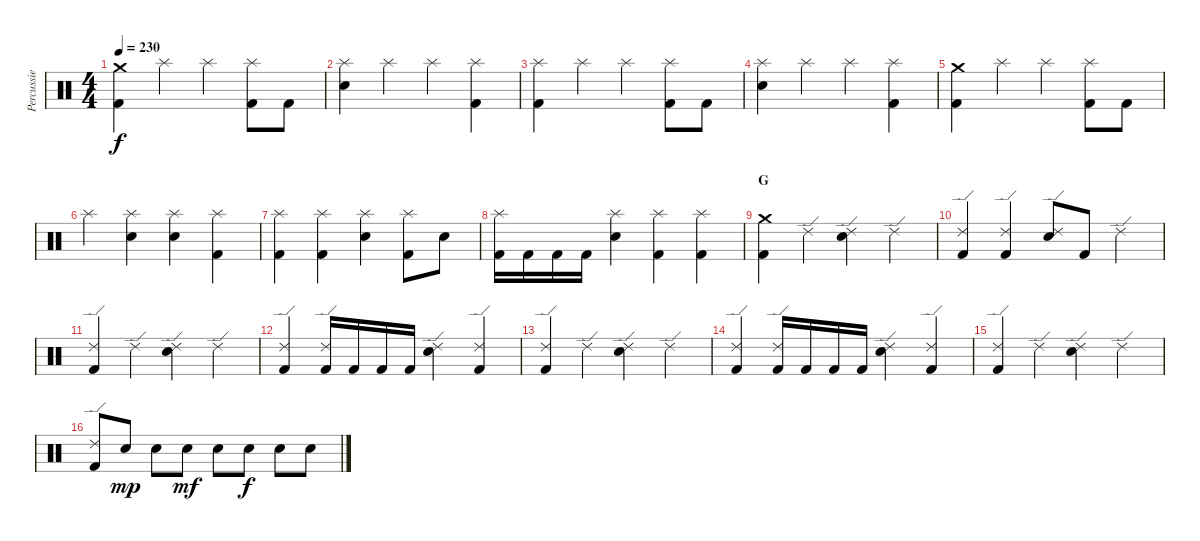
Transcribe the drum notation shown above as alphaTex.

\track ("Percussie" "Percussie") {instrument percussion}
\staff {score}
\articulation defaults
\ts (4 4)
\tempo 230
\clef neutral
\ks c
("Crash medium (hit)" "Kick (hit) 2").4{dy f} "Splash (hit)".4 "Splash (hit)".4 ("Splash (hit)" "Kick (hit) 2").8 "Kick (hit) 2".8 |
("Splash (hit)" "Electric Snare (hit)").4 "Splash (hit)".4 "Splash (hit)".4 ("Splash (hit)" "Kick (hit) 2").4 |
("Splash (hit)" "Kick (hit) 2").4 "Splash (hit)".4 "Splash (hit)".4 ("Splash (hit)" "Kick (hit) 2").8 "Kick (hit) 2".8 |
("Splash (hit)" "Electric Snare (hit)").4 "Splash (hit)".4 "Splash (hit)".4 ("Splash (hit)" "Kick (hit) 2").4 |
("Crash medium (hit)" "Kick (hit) 2").4 "Splash (hit)".4 "Splash (hit)".4 ("Splash (hit)" "Kick (hit) 2").8 "Kick (hit) 2".8 |
"Splash (hit)".4 ("Splash (hit)" "Electric Snare (hit)").4 ("Splash (hit)" "Electric Snare (hit)").4 ("Splash (hit)" "Kick (hit) 2").4 |
("Splash (hit)" "Kick (hit) 2").4 ("Splash (hit)" "Kick (hit) 2").4 ("Splash (hit)" "Electric Snare (hit)").4 ("Splash (hit)" "Kick (hit) 2").8 "Electric Snare (hit)".8 |
("Splash (hit)" "Kick (hit) 2").16 "Kick (hit) 2".16 "Kick (hit) 2".16 "Kick (hit) 2".16 ("Splash (hit)" "Electric Snare (hit)").4 ("Splash (hit)" "Kick (hit) 2").4 ("Splash (hit)" "Kick (hit) 2").4 |
\section ("" "G")
("Crash medium (hit)" "Kick (hit) 2").4 "Ride (edge) 2".4 ("Ride (edge) 2" "Electric Snare (hit)").4 "Ride (edge) 2".4 |
("Ride (edge) 2" "Kick (hit) 2").4 ("Ride (edge) 2" "Kick (hit) 2").4 ("Ride (edge) 2" "Electric Snare (hit)").8 "Kick (hit) 2".8 "Ride (edge) 2".4 |
("Ride (edge) 2" "Kick (hit) 2").4 "Ride (edge) 2".4 ("Ride (edge) 2" "Electric Snare (hit)").4 "Ride (edge) 2".4 |
("Ride (edge) 2" "Kick (hit) 2").4 ("Ride (edge) 2" "Kick (hit) 2").16 "Kick (hit) 2".16 "Kick (hit) 2".16 "Kick (hit) 2".16 ("Ride (edge) 2" "Electric Snare (hit)").4 ("Ride (edge) 2" "Kick (hit) 2").4 |
("Ride (edge) 2" "Kick (hit) 2").4 "Ride (edge) 2".4 ("Ride (edge) 2" "Electric Snare (hit)").4 "Ride (edge) 2".4 |
("Ride (edge) 2" "Kick (hit) 2").4 ("Ride (edge) 2" "Kick (hit) 2").16 "Kick (hit) 2".16 "Kick (hit) 2".16 "Kick (hit) 2".16 ("Ride (edge) 2" "Electric Snare (hit)").4 ("Ride (edge) 2" "Kick (hit) 2").4 |
("Ride (edge) 2" "Kick (hit) 2").4 "Ride (edge) 2".4 ("Ride (edge) 2" "Electric Snare (hit)").4 "Ride (edge) 2".4 |
("Ride (edge) 2" "Kick (hit) 2").8 "Electric Snare (hit)".8{dy mp} "Electric Snare (hit)".8 "Electric Snare (hit)".8{dy mf} "Electric Snare (hit)".8 "Electric Snare (hit)".8{dy f} "Electric Snare (hit)".8 "Electric Snare (hit)".8
